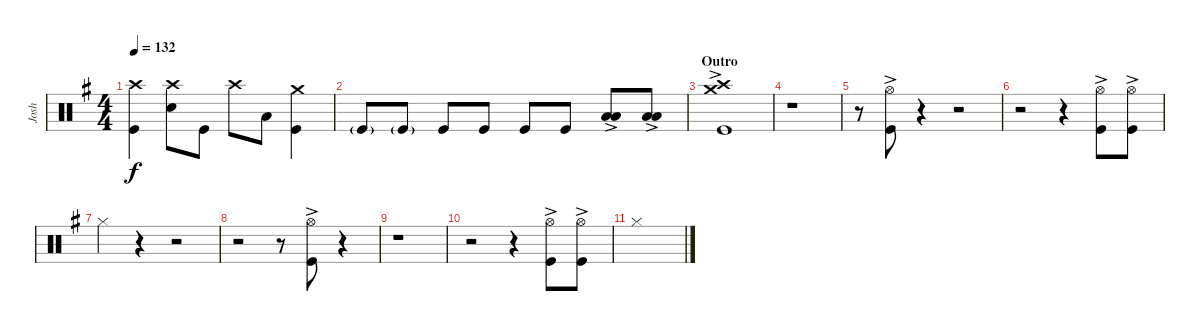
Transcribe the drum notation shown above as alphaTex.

\track ("Josh" "Josh") {instrument percussion}
\staff {score}
\articulation defaults
\ts (4 4)
\tempo 132
\clef neutral
\ks g
("Kick (hit)" "Crash high (hit)").4{dy f} ("Snare (hit) 2" "Crash high (hit)").8 "Kick (hit)".8 "Crash high (hit)".8 "Low Floor Tom (hit)".8 ("Kick (hit)" "Crash medium (hit)").4 |
"Kick (hit)"{g}.8 "Kick (hit)"{g}.8 "Kick (hit)".8 "Kick (hit)".8 "Kick (hit)".8 "Kick (hit)".8 ("Low Tom (hit)"{ac} "Low Floor Tom (hit)"{ac}).8 ("Low Tom (hit)"{ac} "Low Floor Tom (hit)"{ac}).8 |
\section ("" "Outro")
("Kick (hit)"{ac} "Crash high (hit)"{ac} "Crash medium (hit)"{ac}).1 |
r.1 |
r.8 ("Kick (hit)" "Hi-Hat (open)"{ac}).8 r.4 r.2 |
r.2 r.4 ("Kick (hit)"{ac} "Hi-Hat (open)"{ac}).8 ("Kick (hit)"{ac} "Hi-Hat (open)"{ac}).8 |
"Hi-Hat (closed)".4 r.4 r.2 |
r.2 r.8 ("Kick (hit)" "Hi-Hat (open)"{ac}).8 r.4 |
r.1 |
r.2 r.4 ("Kick (hit)"{ac} "Hi-Hat (open)"{ac}).8 ("Kick (hit)"{ac} "Hi-Hat (open)"{ac}).8 |
"Hi-Hat (closed)".1
